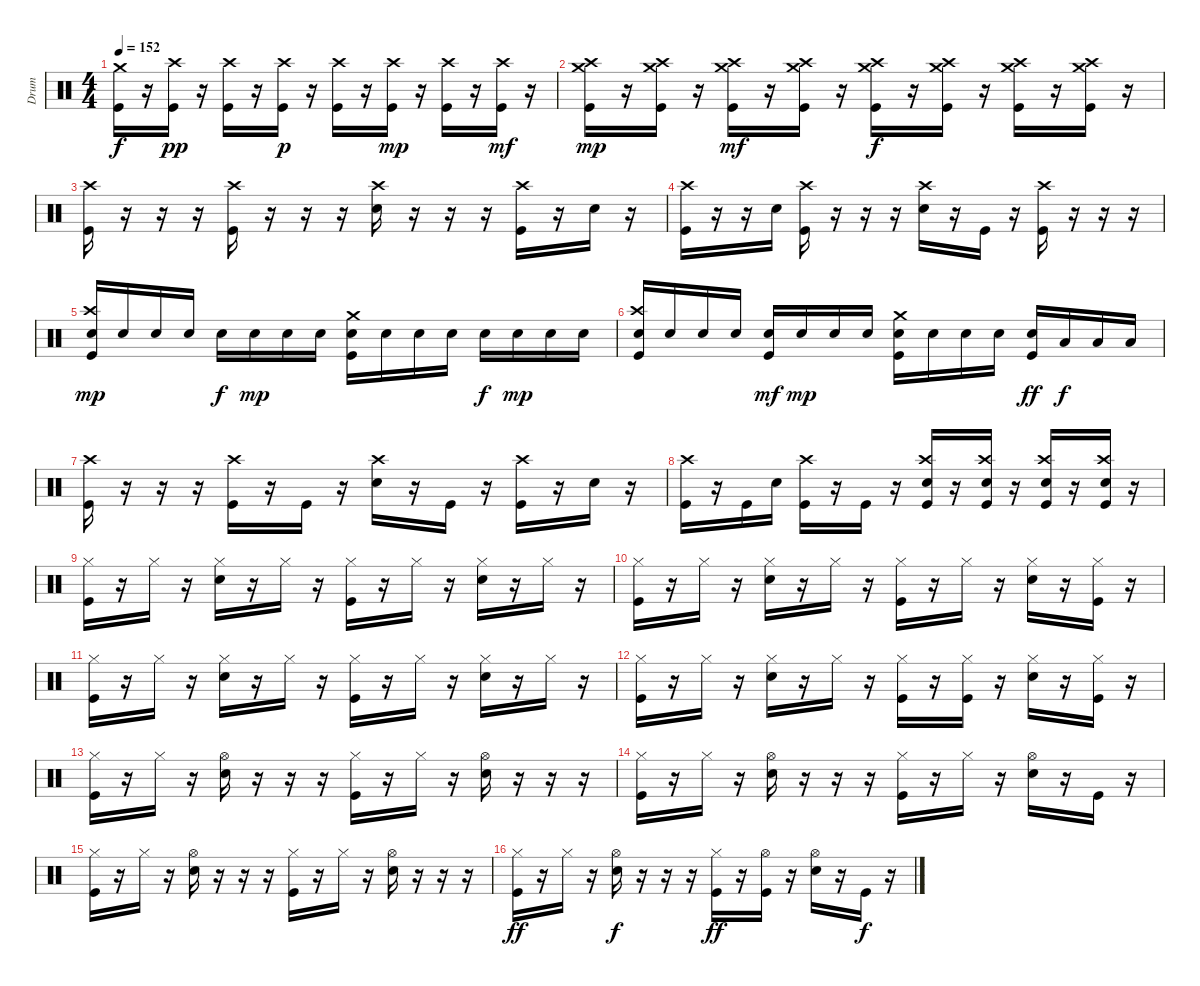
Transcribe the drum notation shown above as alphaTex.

\track ("Drum" "Drum") {instrument percussion}
\staff {score}
\articulation defaults
\ts (4 4)
\tempo 152
\clef neutral
\ks c
("Crash medium (hit)" "Kick (hit)").16{dy f} r.16 ("Crash high (hit)" "Kick (hit)").16{dy pp} r.16 ("Crash high (hit)" "Kick (hit)").16 r.16 ("Crash high (hit)" "Kick (hit)").16{dy p} r.16 ("Crash high (hit)" "Kick (hit)").16 r.16 ("Crash high (hit)" "Kick (hit)").16{dy mp} r.16 ("Crash high (hit)" "Kick (hit)").16 r.16 ("Crash high (hit)" "Kick (hit)").16{dy mf} r.16 |
("Crash high (hit)" "Crash medium (hit)" "Kick (hit)").16{dy mp} r.16 ("Crash high (hit)" "Crash medium (hit)" "Kick (hit)").16 r.16 ("Crash high (hit)" "Crash medium (hit)" "Kick (hit)").16{dy mf} r.16 ("Crash high (hit)" "Crash medium (hit)" "Kick (hit)").16 r.16 ("Crash high (hit)" "Crash medium (hit)" "Kick (hit)").16{dy f} r.16 ("Crash high (hit)" "Crash medium (hit)" "Kick (hit)").16 r.16 ("Crash high (hit)" "Crash medium (hit)" "Kick (hit)").16 r.16 ("Crash high (hit)" "Crash medium (hit)" "Kick (hit)").16 r.16 |
("Crash high (hit)" "Kick (hit)").16 r.16 r.16 r.16 ("Crash high (hit)" "Kick (hit)").16 r.16 r.16 r.16 ("Crash high (hit)" "Electric Snare (hit)").16 r.16 r.16 r.16 ("Crash high (hit)" "Kick (hit)").16 r.16 "Electric Snare (hit)".16 r.16 |
("Crash high (hit)" "Kick (hit)").16 r.16 r.16 "Electric Snare (hit)".16 ("Crash high (hit)" "Kick (hit)").16 r.16 r.16 r.16 ("Crash high (hit)" "Electric Snare (hit)").16 r.16 "Kick (hit)".16 r.16 ("Crash high (hit)" "Kick (hit)").16 r.16 r.16 r.16 |
("Crash high (hit)" "Electric Snare (hit)" "Kick (hit)").16{dy mp} "Electric Snare (hit)".16 "Electric Snare (hit)".16 "Electric Snare (hit)".16 "Electric Snare (hit)".16{dy f} "Electric Snare (hit)".16{dy mp} "Electric Snare (hit)".16 "Electric Snare (hit)".16 ("Crash medium (hit)" "Electric Snare (hit)" "Kick (hit)").16 "Electric Snare (hit)".16 "Electric Snare (hit)".16 "Electric Snare (hit)".16 "Electric Snare (hit)".16{dy f} "Electric Snare (hit)".16{dy mp} "Electric Snare (hit)".16 "Electric Snare (hit)".16 |
("Crash high (hit)" "Electric Snare (hit)" "Kick (hit)").16 "Electric Snare (hit)".16 "Electric Snare (hit)".16 "Electric Snare (hit)".16 ("Electric Snare (hit)" "Kick (hit)").16{dy mf} "Electric Snare (hit)".16{dy mp} "Electric Snare (hit)".16 "Electric Snare (hit)".16 ("Crash medium (hit)" "Electric Snare (hit)" "Kick (hit)").16 "Electric Snare (hit)".16 "Electric Snare (hit)".16 "Electric Snare (hit)".16 ("Electric Snare (hit)" "Kick (hit)").16{dy ff} "Low Tom (hit)".16{dy f} "Low Tom (hit)".16 "Low Tom (hit)".16 |
("Crash high (hit)" "Kick (hit)").16 r.16 r.16 r.16 ("Crash high (hit)" "Kick (hit)").16 r.16 "Kick (hit)".16 r.16 ("Crash high (hit)" "Electric Snare (hit)").16 r.16 "Kick (hit)".16 r.16 ("Crash high (hit)" "Kick (hit)").16 r.16 "Electric Snare (hit)".16 r.16 |
("Crash high (hit)" "Kick (hit)").16 r.16 "Kick (hit)".16 "Electric Snare (hit)".16 ("Crash high (hit)" "Kick (hit)").16 r.16 "Kick (hit)".16 r.16 ("Crash high (hit)" "Electric Snare (hit)" "Kick (hit)").16 r.16 ("Crash high (hit)" "Electric Snare (hit)" "Kick (hit)").16 r.16 ("Crash high (hit)" "Electric Snare (hit)" "Kick (hit)").16 r.16 ("Crash high (hit)" "Electric Snare (hit)" "Kick (hit)").16 r.16 |
("Hi-Hat (closed)" "Kick (hit)").16 r.16 "Hi-Hat (closed)".16 r.16 ("Hi-Hat (closed)" "Electric Snare (hit)").16 r.16 "Hi-Hat (closed)".16 r.16 ("Hi-Hat (closed)" "Kick (hit)").16 r.16 "Hi-Hat (closed)".16 r.16 ("Hi-Hat (closed)" "Electric Snare (hit)").16 r.16 "Hi-Hat (closed)".16 r.16 |
("Hi-Hat (closed)" "Kick (hit)").16 r.16 "Hi-Hat (closed)".16 r.16 ("Hi-Hat (closed)" "Electric Snare (hit)").16 r.16 "Hi-Hat (closed)".16 r.16 ("Hi-Hat (closed)" "Kick (hit)").16 r.16 "Hi-Hat (closed)".16 r.16 ("Hi-Hat (closed)" "Electric Snare (hit)").16 r.16 ("Hi-Hat (closed)" "Kick (hit)").16 r.16 |
("Hi-Hat (closed)" "Kick (hit)").16 r.16 "Hi-Hat (closed)".16 r.16 ("Hi-Hat (closed)" "Electric Snare (hit)").16 r.16 "Hi-Hat (closed)".16 r.16 ("Hi-Hat (closed)" "Kick (hit)").16 r.16 "Hi-Hat (closed)".16 r.16 ("Hi-Hat (closed)" "Electric Snare (hit)").16 r.16 "Hi-Hat (closed)".16 r.16 |
("Hi-Hat (closed)" "Kick (hit)").16 r.16 "Hi-Hat (closed)".16 r.16 ("Hi-Hat (closed)" "Electric Snare (hit)").16 r.16 "Hi-Hat (closed)".16 r.16 ("Hi-Hat (closed)" "Kick (hit)").16 r.16 ("Hi-Hat (closed)" "Kick (hit)").16 r.16 ("Hi-Hat (closed)" "Electric Snare (hit)").16 r.16 ("Hi-Hat (closed)" "Kick (hit)").16 r.16 |
("Hi-Hat (closed)" "Kick (hit)").16 r.16 "Hi-Hat (closed)".16 r.16 ("Hi-Hat (open)" "Electric Snare (hit)").16 r.16 r.16 r.16 ("Hi-Hat (closed)" "Kick (hit)").16 r.16 "Hi-Hat (closed)".16 r.16 ("Hi-Hat (open)" "Electric Snare (hit)").16 r.16 r.16 r.16 |
("Hi-Hat (closed)" "Kick (hit)").16 r.16 "Hi-Hat (closed)".16 r.16 ("Hi-Hat (open)" "Electric Snare (hit)").16 r.16 r.16 r.16 ("Hi-Hat (closed)" "Kick (hit)").16 r.16 "Hi-Hat (closed)".16 r.16 ("Hi-Hat (open)" "Electric Snare (hit)").16 r.16 "Kick (hit)".16 r.16 |
("Hi-Hat (closed)" "Kick (hit)").16 r.16 "Hi-Hat (closed)".16 r.16 ("Hi-Hat (open)" "Electric Snare (hit)").16 r.16 r.16 r.16 ("Hi-Hat (closed)" "Kick (hit)").16 r.16 "Hi-Hat (closed)".16 r.16 ("Hi-Hat (open)" "Electric Snare (hit)").16 r.16 r.16 r.16 |
("Hi-Hat (closed)" "Kick (hit)").16{dy ff} r.16 "Hi-Hat (closed)".16 r.16 ("Hi-Hat (open)" "Electric Snare (hit)").16{dy f} r.16 r.16 r.16 ("Hi-Hat (closed)" "Kick (hit)").16{dy ff} r.16 ("Hi-Hat (open)" "Kick (hit)").16 r.16 ("Hi-Hat (open)" "Electric Snare (hit)").16 r.16 "Kick (hit)".16{dy f} r.16
